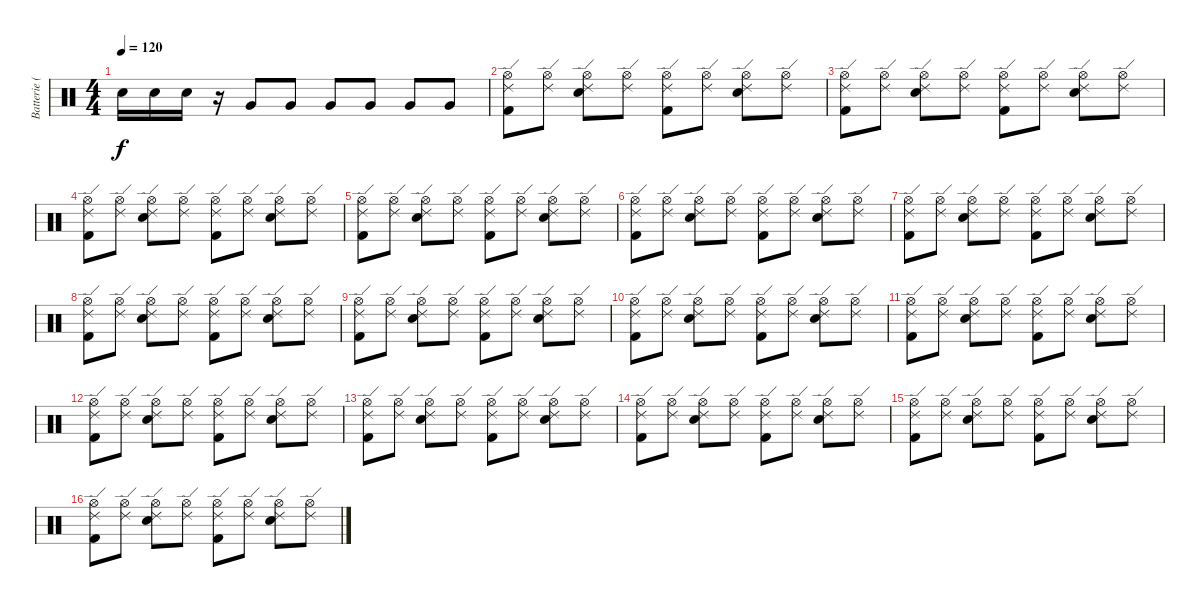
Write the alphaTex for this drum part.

\track ("Batterie (David Lovering)" "Batterie (") {instrument percussion}
\staff {score}
\articulation defaults
\ts (4 4)
\tempo 120
\clef neutral
\ks c "Snare (hit) 2".16{dy f} "Snare (hit) 2".16 "Snare (hit) 2".16
r.16 "Very Low Tom (hit)".8 "Very Low Tom (hit)".8 "Very Low Tom (hit)".8 "Very Low Tom (hit)".8 "Very Low Tom (hit)".8 "Very Low Tom (hit)".8 |
("Ride (edge) 2" "Hi-Hat (open)" "Kick (hit) 2").8 ("Ride (edge) 2" "Hi-Hat (open)").8 ("Ride (edge) 2" "Hi-Hat (open)" "Electric Snare (hit)").8 ("Ride (edge) 2" "Hi-Hat (open)").8 ("Ride (edge) 2" "Hi-Hat (open)" "Kick (hit) 2").8 ("Ride (edge) 2" "Hi-Hat (open)").8 ("Ride (edge) 2" "Hi-Hat (open)" "Electric Snare (hit)").8 ("Ride (edge) 2" "Hi-Hat (open)").8 |
("Ride (edge) 2" "Hi-Hat (open)" "Kick (hit) 2").8 ("Ride (edge) 2" "Hi-Hat (open)").8 ("Ride (edge) 2" "Hi-Hat (open)" "Electric Snare (hit)").8 ("Ride (edge) 2" "Hi-Hat (open)").8 ("Ride (edge) 2" "Hi-Hat (open)" "Kick (hit) 2").8 ("Ride (edge) 2" "Hi-Hat (open)").8 ("Ride (edge) 2" "Hi-Hat (open)" "Electric Snare (hit)").8 ("Ride (edge) 2" "Hi-Hat (open)").8 |
("Ride (edge) 2" "Hi-Hat (open)" "Kick (hit) 2").8 ("Ride (edge) 2" "Hi-Hat (open)").8 ("Ride (edge) 2" "Hi-Hat (open)" "Electric Snare (hit)").8 ("Ride (edge) 2" "Hi-Hat (open)").8 ("Ride (edge) 2" "Hi-Hat (open)" "Kick (hit) 2").8 ("Ride (edge) 2" "Hi-Hat (open)").8 ("Ride (edge) 2" "Hi-Hat (open)" "Electric Snare (hit)").8 ("Ride (edge) 2" "Hi-Hat (open)").8 |
("Ride (edge) 2" "Hi-Hat (open)" "Kick (hit) 2").8 ("Ride (edge) 2" "Hi-Hat (open)").8 ("Ride (edge) 2" "Hi-Hat (open)" "Electric Snare (hit)").8 ("Ride (edge) 2" "Hi-Hat (open)").8 ("Ride (edge) 2" "Hi-Hat (open)" "Kick (hit) 2").8 ("Ride (edge) 2" "Hi-Hat (open)").8 ("Ride (edge) 2" "Hi-Hat (open)" "Electric Snare (hit)").8 ("Ride (edge) 2" "Hi-Hat (open)").8 |
("Ride (edge) 2" "Hi-Hat (open)" "Kick (hit) 2").8 ("Ride (edge) 2" "Hi-Hat (open)").8 ("Ride (edge) 2" "Hi-Hat (open)" "Electric Snare (hit)").8 ("Ride (edge) 2" "Hi-Hat (open)").8 ("Ride (edge) 2" "Hi-Hat (open)" "Kick (hit) 2").8 ("Ride (edge) 2" "Hi-Hat (open)").8 ("Ride (edge) 2" "Hi-Hat (open)" "Electric Snare (hit)").8 ("Ride (edge) 2" "Hi-Hat (open)").8 |
("Ride (edge) 2" "Hi-Hat (open)" "Kick (hit) 2").8 ("Ride (edge) 2" "Hi-Hat (open)").8 ("Ride (edge) 2" "Hi-Hat (open)" "Electric Snare (hit)").8 ("Ride (edge) 2" "Hi-Hat (open)").8 ("Ride (edge) 2" "Hi-Hat (open)" "Kick (hit) 2").8 ("Ride (edge) 2" "Hi-Hat (open)").8 ("Ride (edge) 2" "Hi-Hat (open)" "Electric Snare (hit)").8 ("Ride (edge) 2" "Hi-Hat (open)").8 |
("Ride (edge) 2" "Hi-Hat (open)" "Kick (hit) 2").8 ("Ride (edge) 2" "Hi-Hat (open)").8 ("Ride (edge) 2" "Hi-Hat (open)" "Electric Snare (hit)").8 ("Ride (edge) 2" "Hi-Hat (open)").8 ("Ride (edge) 2" "Hi-Hat (open)" "Kick (hit) 2").8 ("Ride (edge) 2" "Hi-Hat (open)").8 ("Ride (edge) 2" "Hi-Hat (open)" "Electric Snare (hit)").8 ("Ride (edge) 2" "Hi-Hat (open)").8 |
("Ride (edge) 2" "Hi-Hat (open)" "Kick (hit) 2").8 ("Ride (edge) 2" "Hi-Hat (open)").8 ("Ride (edge) 2" "Hi-Hat (open)" "Electric Snare (hit)").8 ("Ride (edge) 2" "Hi-Hat (open)").8 ("Ride (edge) 2" "Hi-Hat (open)" "Kick (hit) 2").8 ("Ride (edge) 2" "Hi-Hat (open)").8 ("Ride (edge) 2" "Hi-Hat (open)" "Electric Snare (hit)").8 ("Ride (edge) 2" "Hi-Hat (open)").8 |
("Ride (edge) 2" "Hi-Hat (open)" "Kick (hit) 2").8 ("Ride (edge) 2" "Hi-Hat (open)").8 ("Ride (edge) 2" "Hi-Hat (open)" "Electric Snare (hit)").8 ("Ride (edge) 2" "Hi-Hat (open)").8 ("Ride (edge) 2" "Hi-Hat (open)" "Kick (hit) 2").8 ("Ride (edge) 2" "Hi-Hat (open)").8 ("Ride (edge) 2" "Hi-Hat (open)" "Electric Snare (hit)").8 ("Ride (edge) 2" "Hi-Hat (open)").8 |
("Ride (edge) 2" "Hi-Hat (open)" "Kick (hit) 2").8 ("Ride (edge) 2" "Hi-Hat (open)").8 ("Ride (edge) 2" "Hi-Hat (open)" "Electric Snare (hit)").8 ("Ride (edge) 2" "Hi-Hat (open)").8 ("Ride (edge) 2" "Hi-Hat (open)" "Kick (hit) 2").8 ("Ride (edge) 2" "Hi-Hat (open)").8 ("Ride (edge) 2" "Hi-Hat (open)" "Electric Snare (hit)").8 ("Ride (edge) 2" "Hi-Hat (open)").8 |
("Ride (edge) 2" "Hi-Hat (open)" "Kick (hit) 2").8 ("Ride (edge) 2" "Hi-Hat (open)").8 ("Ride (edge) 2" "Hi-Hat (open)" "Electric Snare (hit)").8 ("Ride (edge) 2" "Hi-Hat (open)").8 ("Ride (edge) 2" "Hi-Hat (open)" "Kick (hit) 2").8 ("Ride (edge) 2" "Hi-Hat (open)").8 ("Ride (edge) 2" "Hi-Hat (open)" "Electric Snare (hit)").8 ("Ride (edge) 2" "Hi-Hat (open)").8 |
("Ride (edge) 2" "Hi-Hat (open)" "Kick (hit) 2").8 ("Ride (edge) 2" "Hi-Hat (open)").8 ("Ride (edge) 2" "Hi-Hat (open)" "Electric Snare (hit)").8 ("Ride (edge) 2" "Hi-Hat (open)").8 ("Ride (edge) 2" "Hi-Hat (open)" "Kick (hit) 2").8 ("Ride (edge) 2" "Hi-Hat (open)").8 ("Ride (edge) 2" "Hi-Hat (open)" "Electric Snare (hit)").8 ("Ride (edge) 2" "Hi-Hat (open)").8 |
("Ride (edge) 2" "Hi-Hat (open)" "Kick (hit) 2").8 ("Ride (edge) 2" "Hi-Hat (open)").8 ("Ride (edge) 2" "Hi-Hat (open)" "Electric Snare (hit)").8 ("Ride (edge) 2" "Hi-Hat (open)").8 ("Ride (edge) 2" "Hi-Hat (open)" "Kick (hit) 2").8 ("Ride (edge) 2" "Hi-Hat (open)").8 ("Ride (edge) 2" "Hi-Hat (open)" "Electric Snare (hit)").8 ("Ride (edge) 2" "Hi-Hat (open)").8 |
("Ride (edge) 2" "Hi-Hat (open)" "Kick (hit) 2").8 ("Ride (edge) 2" "Hi-Hat (open)").8 ("Ride (edge) 2" "Hi-Hat (open)" "Electric Snare (hit)").8 ("Ride (edge) 2" "Hi-Hat (open)").8 ("Ride (edge) 2" "Hi-Hat (open)" "Kick (hit) 2").8 ("Ride (edge) 2" "Hi-Hat (open)").8 ("Ride (edge) 2" "Hi-Hat (open)" "Electric Snare (hit)").8 ("Ride (edge) 2" "Hi-Hat (open)").8 |
("Ride (edge) 2" "Hi-Hat (open)" "Kick (hit) 2").8 ("Ride (edge) 2" "Hi-Hat (open)").8 ("Ride (edge) 2" "Hi-Hat (open)" "Electric Snare (hit)").8 ("Ride (edge) 2" "Hi-Hat (open)").8 ("Ride (edge) 2" "Hi-Hat (open)" "Kick (hit) 2").8 ("Ride (edge) 2" "Hi-Hat (open)").8 ("Ride (edge) 2" "Hi-Hat (open)" "Electric Snare (hit)").8 ("Ride (edge) 2" "Hi-Hat (open)").8
